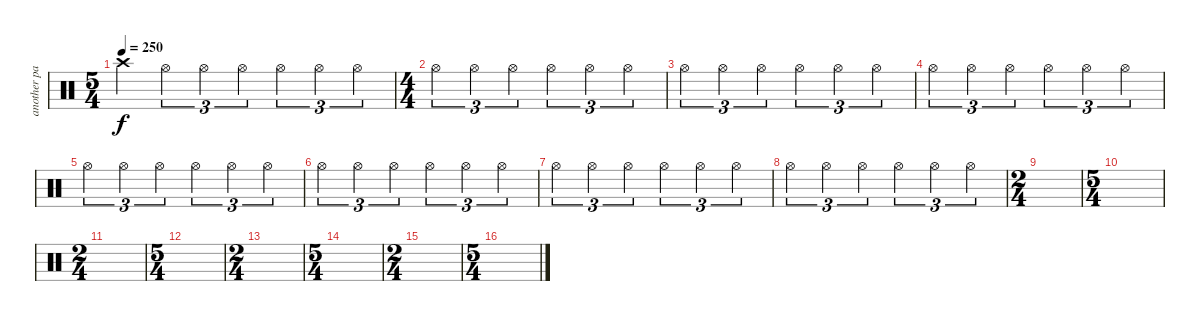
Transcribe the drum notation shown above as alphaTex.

\track ("another part of metti" "another pa") {instrument percussion}
\staff {score}
\articulation defaults
\ts (5 4)
\tempo 250
\clef neutral
\ks c "Crash high (hit)".4{dy f} "Hi-Hat (open)".4{tu (3 2)} "Hi-Hat (open)".4{tu (3 2)} "Hi-Hat (open)".4{tu (3 2)} "Hi-Hat (open)".4{tu (3 2)} "Hi-Hat (open)".4{tu (3 2)} "Hi-Hat (open)".4{tu (3 2)}
|
\ts (4 4)
"Hi-Hat (open)".4{tu (3 2)} "Hi-Hat (open)".4{tu (3 2)} "Hi-Hat (open)".4{tu (3 2)} "Hi-Hat (open)".4{tu (3 2)} "Hi-Hat (open)".4{tu (3 2)} "Hi-Hat (open)".4{tu (3 2)} |
"Hi-Hat (open)".4{tu (3 2)} "Hi-Hat (open)".4{tu (3 2)} "Hi-Hat (open)".4{tu (3 2)} "Hi-Hat (open)".4{tu (3 2)} "Hi-Hat (open)".4{tu (3 2)} "Hi-Hat (open)".4{tu (3 2)} |
"Hi-Hat (open)".4{tu (3 2)} "Hi-Hat (open)".4{tu (3 2)} "Hi-Hat (open)".4{tu (3 2)} "Hi-Hat (open)".4{tu (3 2)} "Hi-Hat (open)".4{tu (3 2)} "Hi-Hat (open)".4{tu (3 2)} |
"Hi-Hat (open)".4{tu (3 2)} "Hi-Hat (open)".4{tu (3 2)} "Hi-Hat (open)".4{tu (3 2)} "Hi-Hat (open)".4{tu (3 2)} "Hi-Hat (open)".4{tu (3 2)} "Hi-Hat (open)".4{tu (3 2)} |
"Hi-Hat (open)".4{tu (3 2)} "Hi-Hat (open)".4{tu (3 2)} "Hi-Hat (open)".4{tu (3 2)} "Hi-Hat (open)".4{tu (3 2)} "Hi-Hat (open)".4{tu (3 2)} "Hi-Hat (open)".4{tu (3 2)} |
"Hi-Hat (open)".4{tu (3 2)} "Hi-Hat (open)".4{tu (3 2)} "Hi-Hat (open)".4{tu (3 2)} "Hi-Hat (open)".4{tu (3 2)} "Hi-Hat (open)".4{tu (3 2)} "Hi-Hat (open)".4{tu (3 2)} |
"Hi-Hat (open)".4{tu (3 2)} "Hi-Hat (open)".4{tu (3 2)} "Hi-Hat (open)".4{tu (3 2)} "Hi-Hat (open)".4{tu (3 2)} "Hi-Hat (open)".4{tu (3 2)} "Hi-Hat (open)".4{tu (3 2)} |
\ts (2 4)
|
\ts (5 4)
|
\ts (2 4)
|
\ts (5 4)
|
\ts (2 4)
|
\ts (5 4)
|
\ts (2 4)
|
\ts (5 4)
